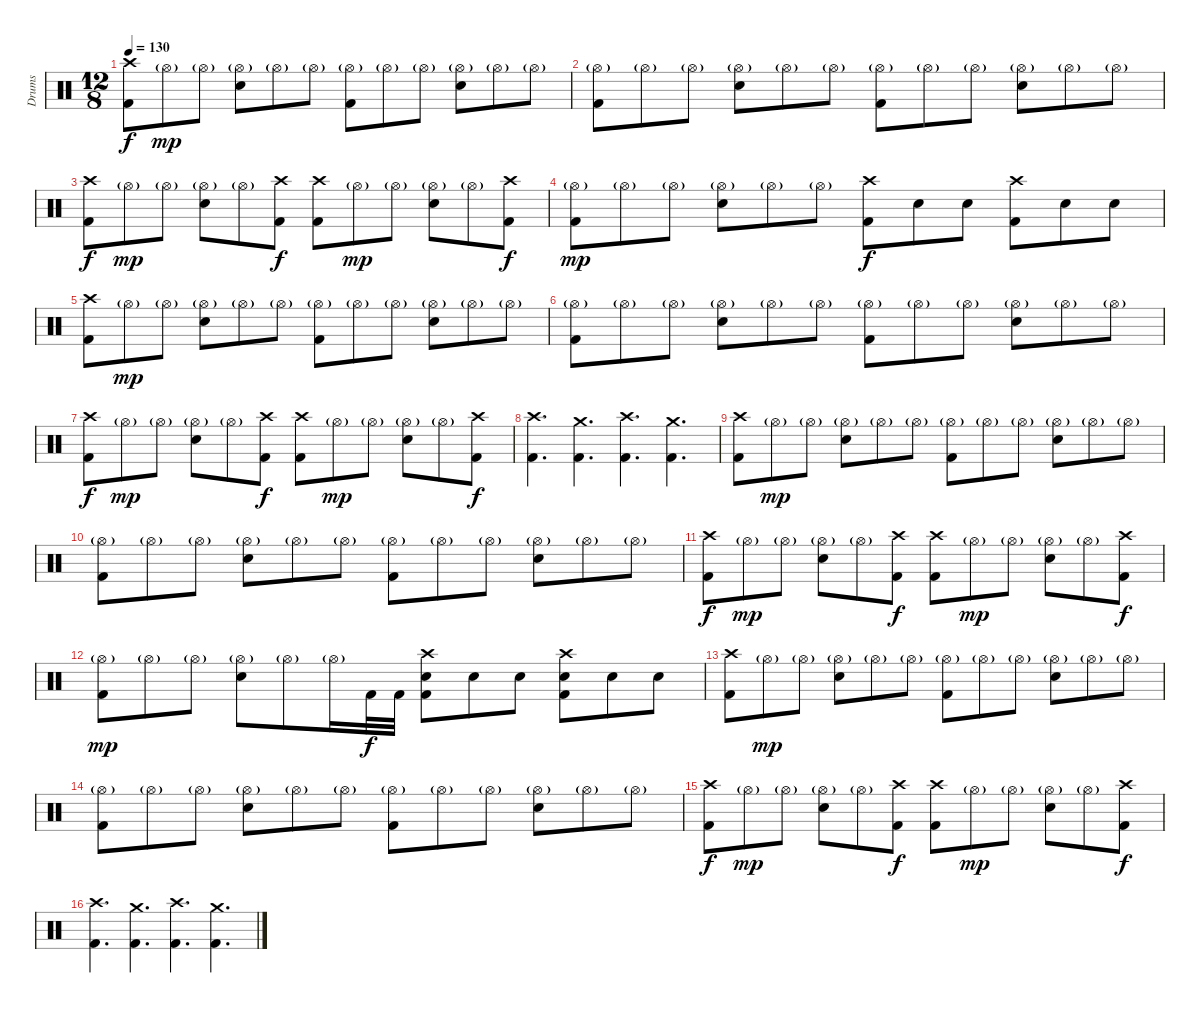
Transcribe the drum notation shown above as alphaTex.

\track ("Drums" "Drums") {instrument percussion}
\staff {score}
\articulation defaults
\ts (12 8)
\tempo 130
\clef neutral
\ks c
("Crash high (hit)" "Kick (hit) 2").8{dy f} "Hi-Hat (open)"{g}.8{dy mp} "Hi-Hat (open)"{g}.8 ("Hi-Hat (open)"{g} "Electric Snare (hit)").8 "Hi-Hat (open)"{g}.8 "Hi-Hat (open)"{g}.8 ("Hi-Hat (open)"{g} "Kick (hit) 2").8 "Hi-Hat (open)"{g}.8 "Hi-Hat (open)"{g}.8 ("Hi-Hat (open)"{g} "Electric Snare (hit)").8 "Hi-Hat (open)"{g}.8 "Hi-Hat (open)"{g}.8 |
("Hi-Hat (open)"{g} "Kick (hit) 2").8 "Hi-Hat (open)"{g}.8 "Hi-Hat (open)"{g}.8 ("Hi-Hat (open)"{g} "Electric Snare (hit)").8 "Hi-Hat (open)"{g}.8 "Hi-Hat (open)"{g}.8 ("Hi-Hat (open)"{g} "Kick (hit) 2").8 "Hi-Hat (open)"{g}.8 "Hi-Hat (open)"{g}.8 ("Hi-Hat (open)"{g} "Electric Snare (hit)").8 "Hi-Hat (open)"{g}.8 "Hi-Hat (open)"{g}.8 |
("Crash high (hit)" "Kick (hit) 2").8{dy f} "Hi-Hat (open)"{g}.8{dy mp} "Hi-Hat (open)"{g}.8 ("Hi-Hat (open)"{g} "Electric Snare (hit)").8 "Hi-Hat (open)"{g}.8 ("Crash high (hit)" "Kick (hit) 2").8{dy f} ("Crash high (hit)" "Kick (hit) 2").8 "Hi-Hat (open)"{g}.8{dy mp} "Hi-Hat (open)"{g}.8 ("Hi-Hat (open)"{g} "Electric Snare (hit)").8 "Hi-Hat (open)"{g}.8 ("Crash high (hit)" "Kick (hit) 2").8{dy f} |
("Hi-Hat (open)"{g} "Kick (hit) 2").8{dy mp} "Hi-Hat (open)"{g}.8 "Hi-Hat (open)"{g}.8 ("Hi-Hat (open)"{g} "Electric Snare (hit)").8 "Hi-Hat (open)"{g}.8 "Hi-Hat (open)"{g}.8 ("Crash high (hit)" "Kick (hit) 2").8{dy f} "Electric Snare (hit)".8 "Electric Snare (hit)".8 ("Crash high (hit)" "Kick (hit) 2").8 "Electric Snare (hit)".8 "Electric Snare (hit)".8 |
("Crash high (hit)" "Kick (hit) 2").8 "Hi-Hat (open)"{g}.8{dy mp} "Hi-Hat (open)"{g}.8 ("Hi-Hat (open)"{g} "Electric Snare (hit)").8 "Hi-Hat (open)"{g}.8 "Hi-Hat (open)"{g}.8 ("Hi-Hat (open)"{g} "Kick (hit) 2").8 "Hi-Hat (open)"{g}.8 "Hi-Hat (open)"{g}.8 ("Hi-Hat (open)"{g} "Electric Snare (hit)").8 "Hi-Hat (open)"{g}.8 "Hi-Hat (open)"{g}.8 |
("Hi-Hat (open)"{g} "Kick (hit) 2").8 "Hi-Hat (open)"{g}.8 "Hi-Hat (open)"{g}.8 ("Hi-Hat (open)"{g} "Electric Snare (hit)").8 "Hi-Hat (open)"{g}.8 "Hi-Hat (open)"{g}.8 ("Hi-Hat (open)"{g} "Kick (hit) 2").8 "Hi-Hat (open)"{g}.8 "Hi-Hat (open)"{g}.8 ("Hi-Hat (open)"{g} "Electric Snare (hit)").8 "Hi-Hat (open)"{g}.8 "Hi-Hat (open)"{g}.8 |
("Crash high (hit)" "Kick (hit) 2").8{dy f} "Hi-Hat (open)"{g}.8{dy mp} "Hi-Hat (open)"{g}.8 ("Hi-Hat (open)"{g} "Electric Snare (hit)").8 "Hi-Hat (open)"{g}.8 ("Crash high (hit)" "Kick (hit) 2").8{dy f} ("Crash high (hit)" "Kick (hit) 2").8 "Hi-Hat (open)"{g}.8{dy mp} "Hi-Hat (open)"{g}.8 ("Hi-Hat (open)"{g} "Electric Snare (hit)").8 "Hi-Hat (open)"{g}.8 ("Crash high (hit)" "Kick (hit) 2").8{dy f} |
("Crash high (hit)" "Kick (hit) 2").4{d} ("Crash medium (hit)" "Kick (hit) 2").4{d} ("Crash high (hit)" "Kick (hit) 2").4{d} ("Crash medium (hit)" "Kick (hit) 2").4{d} |
("Crash high (hit)" "Kick (hit) 2").8 "Hi-Hat (open)"{g}.8{dy mp} "Hi-Hat (open)"{g}.8 ("Hi-Hat (open)"{g} "Electric Snare (hit)").8 "Hi-Hat (open)"{g}.8 "Hi-Hat (open)"{g}.8 ("Hi-Hat (open)"{g} "Kick (hit) 2").8 "Hi-Hat (open)"{g}.8 "Hi-Hat (open)"{g}.8 ("Hi-Hat (open)"{g} "Electric Snare (hit)").8 "Hi-Hat (open)"{g}.8 "Hi-Hat (open)"{g}.8 |
("Hi-Hat (open)"{g} "Kick (hit) 2").8 "Hi-Hat (open)"{g}.8 "Hi-Hat (open)"{g}.8 ("Hi-Hat (open)"{g} "Electric Snare (hit)").8 "Hi-Hat (open)"{g}.8 "Hi-Hat (open)"{g}.8 ("Hi-Hat (open)"{g} "Kick (hit) 2").8 "Hi-Hat (open)"{g}.8 "Hi-Hat (open)"{g}.8 ("Hi-Hat (open)"{g} "Electric Snare (hit)").8 "Hi-Hat (open)"{g}.8 "Hi-Hat (open)"{g}.8 |
("Crash high (hit)" "Kick (hit) 2").8{dy f} "Hi-Hat (open)"{g}.8{dy mp} "Hi-Hat (open)"{g}.8 ("Hi-Hat (open)"{g} "Electric Snare (hit)").8 "Hi-Hat (open)"{g}.8 ("Crash high (hit)" "Kick (hit) 2").8{dy f} ("Crash high (hit)" "Kick (hit) 2").8 "Hi-Hat (open)"{g}.8{dy mp} "Hi-Hat (open)"{g}.8 ("Hi-Hat (open)"{g} "Electric Snare (hit)").8 "Hi-Hat (open)"{g}.8 ("Crash high (hit)" "Kick (hit) 2").8{dy f} |
("Hi-Hat (open)"{g} "Kick (hit) 2").8{dy mp} "Hi-Hat (open)"{g}.8 "Hi-Hat (open)"{g}.8 ("Hi-Hat (open)"{g} "Electric Snare (hit)").8 "Hi-Hat (open)"{g}.8 "Hi-Hat (open)"{g}.16 "Kick (hit) 2".32{dy f} "Kick (hit) 2".32 ("Crash high (hit)" "Electric Snare (hit)" "Kick (hit) 2").8 "Electric Snare (hit)".8 "Electric Snare (hit)".8 ("Crash high (hit)" "Electric Snare (hit)" "Kick (hit) 2").8 "Electric Snare (hit)".8 "Electric Snare (hit)".8 |
("Crash high (hit)" "Kick (hit) 2").8 "Hi-Hat (open)"{g}.8{dy mp} "Hi-Hat (open)"{g}.8 ("Hi-Hat (open)"{g} "Electric Snare (hit)").8 "Hi-Hat (open)"{g}.8 "Hi-Hat (open)"{g}.8 ("Hi-Hat (open)"{g} "Kick (hit) 2").8 "Hi-Hat (open)"{g}.8 "Hi-Hat (open)"{g}.8 ("Hi-Hat (open)"{g} "Electric Snare (hit)").8 "Hi-Hat (open)"{g}.8 "Hi-Hat (open)"{g}.8 |
("Hi-Hat (open)"{g} "Kick (hit) 2").8 "Hi-Hat (open)"{g}.8 "Hi-Hat (open)"{g}.8 ("Hi-Hat (open)"{g} "Electric Snare (hit)").8 "Hi-Hat (open)"{g}.8 "Hi-Hat (open)"{g}.8 ("Hi-Hat (open)"{g} "Kick (hit) 2").8 "Hi-Hat (open)"{g}.8 "Hi-Hat (open)"{g}.8 ("Hi-Hat (open)"{g} "Electric Snare (hit)").8 "Hi-Hat (open)"{g}.8 "Hi-Hat (open)"{g}.8 |
("Crash high (hit)" "Kick (hit) 2").8{dy f} "Hi-Hat (open)"{g}.8{dy mp} "Hi-Hat (open)"{g}.8 ("Hi-Hat (open)"{g} "Electric Snare (hit)").8 "Hi-Hat (open)"{g}.8 ("Crash high (hit)" "Kick (hit) 2").8{dy f} ("Crash high (hit)" "Kick (hit) 2").8 "Hi-Hat (open)"{g}.8{dy mp} "Hi-Hat (open)"{g}.8 ("Hi-Hat (open)"{g} "Electric Snare (hit)").8 "Hi-Hat (open)"{g}.8 ("Crash high (hit)" "Kick (hit) 2").8{dy f} |
("Crash high (hit)" "Kick (hit) 2").4{d} ("Crash medium (hit)" "Kick (hit) 2").4{d} ("Crash high (hit)" "Kick (hit) 2").4{d} ("Crash medium (hit)" "Kick (hit) 2").4{d}
